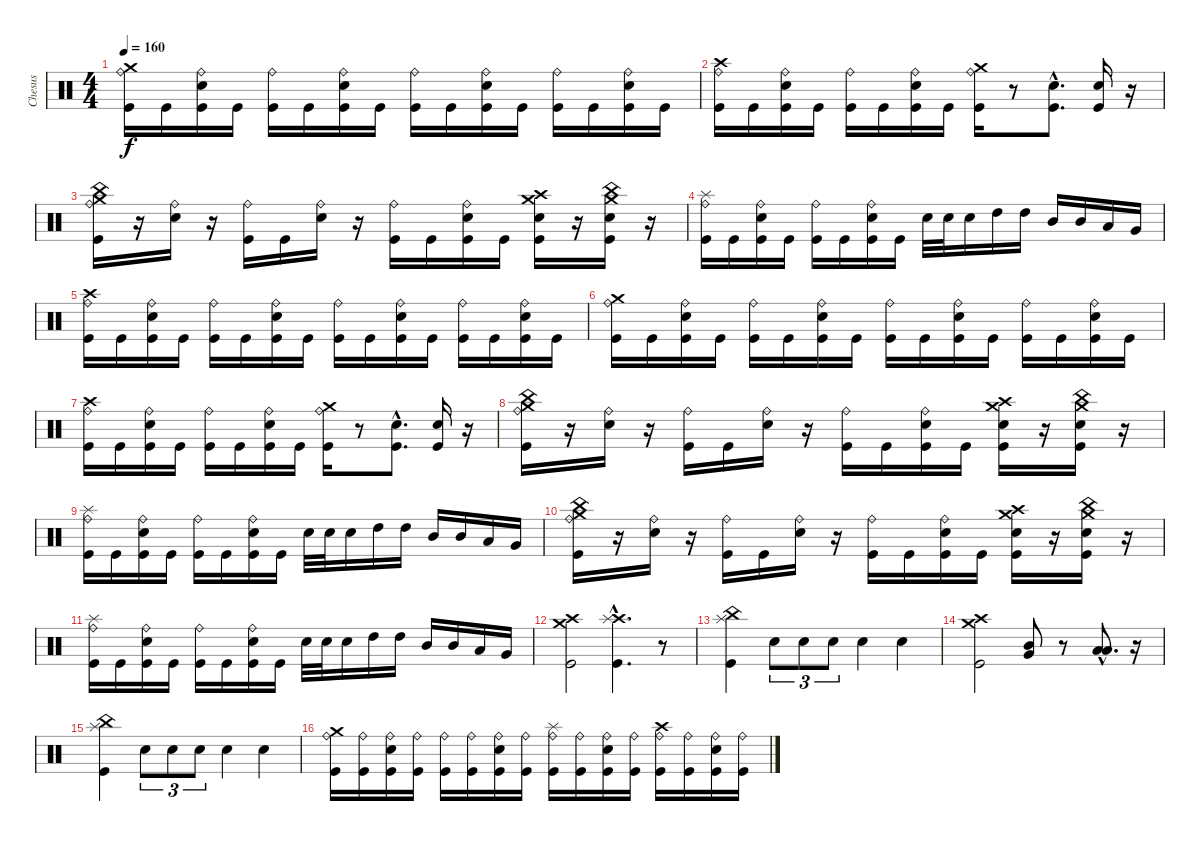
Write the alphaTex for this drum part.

\track ("Chesus" "Chesus") {instrument percussion}
\staff {score}
\articulation defaults
\ts (4 4)
\tempo 160
\clef neutral
\ks c
("Crash medium (hit)" "Ride (bell)" "Kick (hit)").16{dy f} "Kick (hit)".16 ("Ride (bell)" "Snare (hit) 2" "Kick (hit)").16 "Kick (hit)".16 ("Ride (bell)" "Kick (hit)").16 "Kick (hit)".16 ("Ride (bell)" "Snare (hit) 2" "Kick (hit)").16 "Kick (hit)".16 ("Ride (bell)" "Kick (hit)").16 "Kick (hit)".16 ("Ride (bell)" "Snare (hit) 2" "Kick (hit)").16 "Kick (hit)".16 ("Ride (bell)" "Kick (hit)").16 "Kick (hit)".16 ("Ride (bell)" "Snare (hit) 2" "Kick (hit)").16 "Kick (hit)".16 |
("Crash high (hit)" "Ride (bell)" "Kick (hit)").16 "Kick (hit)".16 ("Ride (bell)" "Snare (hit) 2" "Kick (hit)").16 "Kick (hit)".16 ("Ride (bell)" "Kick (hit)").16 "Kick (hit)".16 ("Ride (bell)" "Snare (hit) 2" "Kick (hit)").16 "Kick (hit)".16 ("Crash medium (hit)" "Ride (bell)" "Kick (hit)").16 r.8 ("Snare (hit) 2"{hac} "Kick (hit)"{hac}).8{d} ("Snare (hit) 2" "Kick (hit)").16 r.16 |
("Crash medium (hit)" "China (hit)" "Ride (bell)" "Kick (hit)").16 r.16 ("Ride (bell)" "Snare (hit) 2").16 r.16 ("Ride (bell)" "Kick (hit)").16 "Kick (hit)".16 ("Ride (bell)" "Snare (hit) 2").16 r.16 ("Ride (bell)" "Kick (hit)").16 "Kick (hit)".16 ("Ride (bell)" "Snare (hit) 2" "Kick (hit)").16 "Kick (hit)".16 ("Crash medium (hit)" "Crash high (hit)" "Snare (hit) 2" "Kick (hit)").16 r.16 ("Crash medium (hit)" "China (hit)" "Snare (hit) 2" "Kick (hit)").16 r.16 |
("Splash (hit)" "Ride (bell)" "Kick (hit)").16 "Kick (hit)".16 ("Ride (bell)" "Snare (hit) 2" "Kick (hit)").16 "Kick (hit)".16 ("Ride (bell)" "Kick (hit)").16 "Kick (hit)".16 ("Ride (bell)" "Snare (hit) 2" "Kick (hit)").16 "Kick (hit)".16 "Snare (hit) 2".32 "Snare (hit) 2".32 "Snare (hit) 2".16 "High Tom (hit)".16 "High Tom (hit)".16 "Mid Tom (hit)".16 "Mid Tom (hit)".16 "Low Tom (hit)".16 "Very Low Tom (hit)".16 |
("Crash high (hit)" "Ride (bell)" "Kick (hit)").16 "Kick (hit)".16 ("Ride (bell)" "Snare (hit) 2" "Kick (hit)").16 "Kick (hit)".16 ("Ride (bell)" "Kick (hit)").16 "Kick (hit)".16 ("Ride (bell)" "Snare (hit) 2" "Kick (hit)").16 "Kick (hit)".16 ("Ride (bell)" "Kick (hit)").16 "Kick (hit)".16 ("Ride (bell)" "Snare (hit) 2" "Kick (hit)").16 "Kick (hit)".16 ("Ride (bell)" "Kick (hit)").16 "Kick (hit)".16 ("Ride (bell)" "Snare (hit) 2" "Kick (hit)").16 "Kick (hit)".16 |
("Crash medium (hit)" "Ride (bell)" "Kick (hit)").16 "Kick (hit)".16 ("Ride (bell)" "Snare (hit) 2" "Kick (hit)").16 "Kick (hit)".16 ("Ride (bell)" "Kick (hit)").16 "Kick (hit)".16 ("Ride (bell)" "Snare (hit) 2" "Kick (hit)").16 "Kick (hit)".16 ("Ride (bell)" "Kick (hit)").16 "Kick (hit)".16 ("Ride (bell)" "Snare (hit) 2" "Kick (hit)").16 "Kick (hit)".16 ("Ride (bell)" "Kick (hit)").16 "Kick (hit)".16 ("Ride (bell)" "Snare (hit) 2" "Kick (hit)").16 "Kick (hit)".16 |
("Crash high (hit)" "Ride (bell)" "Kick (hit)").16 "Kick (hit)".16 ("Ride (bell)" "Snare (hit) 2" "Kick (hit)").16 "Kick (hit)".16 ("Ride (bell)" "Kick (hit)").16 "Kick (hit)".16 ("Ride (bell)" "Snare (hit) 2" "Kick (hit)").16 "Kick (hit)".16 ("Crash medium (hit)" "Ride (bell)" "Kick (hit)").16 r.8 ("Snare (hit) 2"{hac} "Kick (hit)"{hac}).8{d} ("Snare (hit) 2" "Kick (hit)").16 r.16 |
("Crash medium (hit)" "China (hit)" "Ride (bell)" "Kick (hit)").16 r.16 ("Ride (bell)" "Snare (hit) 2").16 r.16 ("Ride (bell)" "Kick (hit)").16 "Kick (hit)".16 ("Ride (bell)" "Snare (hit) 2").16 r.16 ("Ride (bell)" "Kick (hit)").16 "Kick (hit)".16 ("Ride (bell)" "Snare (hit) 2" "Kick (hit)").16 "Kick (hit)".16 ("Crash medium (hit)" "Crash high (hit)" "Snare (hit) 2" "Kick (hit)").16 r.16 ("Crash medium (hit)" "China (hit)" "Snare (hit) 2" "Kick (hit)").16 r.16 |
("Splash (hit)" "Ride (bell)" "Kick (hit)").16 "Kick (hit)".16 ("Ride (bell)" "Snare (hit) 2" "Kick (hit)").16 "Kick (hit)".16 ("Ride (bell)" "Kick (hit)").16 "Kick (hit)".16 ("Ride (bell)" "Snare (hit) 2" "Kick (hit)").16 "Kick (hit)".16 "Snare (hit) 2".32 "Snare (hit) 2".32 "Snare (hit) 2".16 "High Tom (hit)".16 "High Tom (hit)".16 "Mid Tom (hit)".16 "Mid Tom (hit)".16 "Low Tom (hit)".16 "Very Low Tom (hit)".16 |
("Crash medium (hit)" "China (hit)" "Ride (bell)" "Kick (hit)").16 r.16 ("Ride (bell)" "Snare (hit) 2").16 r.16 ("Ride (bell)" "Kick (hit)").16 "Kick (hit)".16 ("Ride (bell)" "Snare (hit) 2").16 r.16 ("Ride (bell)" "Kick (hit)").16 "Kick (hit)".16 ("Ride (bell)" "Snare (hit) 2" "Kick (hit)").16 "Kick (hit)".16 ("Crash medium (hit)" "Crash high (hit)" "Snare (hit) 2" "Kick (hit)").16 r.16 ("Crash medium (hit)" "China (hit)" "Snare (hit) 2" "Kick (hit)").16 r.16 |
("Splash (hit)" "Ride (bell)" "Kick (hit)").16 "Kick (hit)".16 ("Ride (bell)" "Snare (hit) 2" "Kick (hit)").16 "Kick (hit)".16 ("Ride (bell)" "Kick (hit)").16 "Kick (hit)".16 ("Ride (bell)" "Snare (hit) 2" "Kick (hit)").16 "Kick (hit)".16 "Snare (hit) 2".32 "Snare (hit) 2".32 "Snare (hit) 2".16 "High Tom (hit)".16 "High Tom (hit)".16 "Mid Tom (hit)".16 "Mid Tom (hit)".16 "Low Tom (hit)".16 "Very Low Tom (hit)".16 |
("Crash high (hit)" "Crash medium (hit)" "Kick (hit)").2 ("Crash high (hit)"{hac} "Splash (hit)"{hac} "Kick (hit)"{hac}).4{d} r.8 |
("Splash (hit)" "China (hit)" "Kick (hit)").4 "Snare (hit) 2".8{tu (3 2)} "Snare (hit) 2".8{tu (3 2)} "Snare (hit) 2".8{tu (3 2)} "Snare (hit) 2".4 "Snare (hit) 2".4 |
("Crash medium (hit)" "Crash high (hit)" "Kick (hit)").2 ("Mid Tom (hit)" "Very Low Tom (hit)").8 r.8 ("Low Tom (hit)"{hac} "Low Floor Tom (hit)"{hac}).8{d} r.16 |
("Splash (hit)" "China (hit)" "Kick (hit)").4 "Snare (hit) 2".8{tu (3 2)} "Snare (hit) 2".8{tu (3 2)} "Snare (hit) 2".8{tu (3 2)} "Snare (hit) 2".4 "Snare (hit) 2".4 |
("Crash medium (hit)" "Ride (bell)" "Kick (hit)").16 ("Ride (bell)" "Kick (hit)").16 ("Ride (bell)" "Snare (hit) 2" "Kick (hit)").16 ("Ride (bell)" "Kick (hit)").16 ("Ride (bell)" "Kick (hit)").16 ("Ride (bell)" "Kick (hit)").16 ("Ride (bell)" "Snare (hit) 2" "Kick (hit)").16 ("Ride (bell)" "Kick (hit)").16 ("Splash (hit)" "Ride (bell)" "Kick (hit)").16 ("Ride (bell)" "Kick (hit)").16 ("Ride (bell)" "Snare (hit) 2" "Kick (hit)").16 ("Ride (bell)" "Kick (hit)").16 ("Crash high (hit)" "Ride (bell)" "Kick (hit)").16 ("Ride (bell)" "Kick (hit)").16 ("Ride (bell)" "Snare (hit) 2" "Kick (hit)").16 ("Ride (bell)" "Kick (hit)").16
